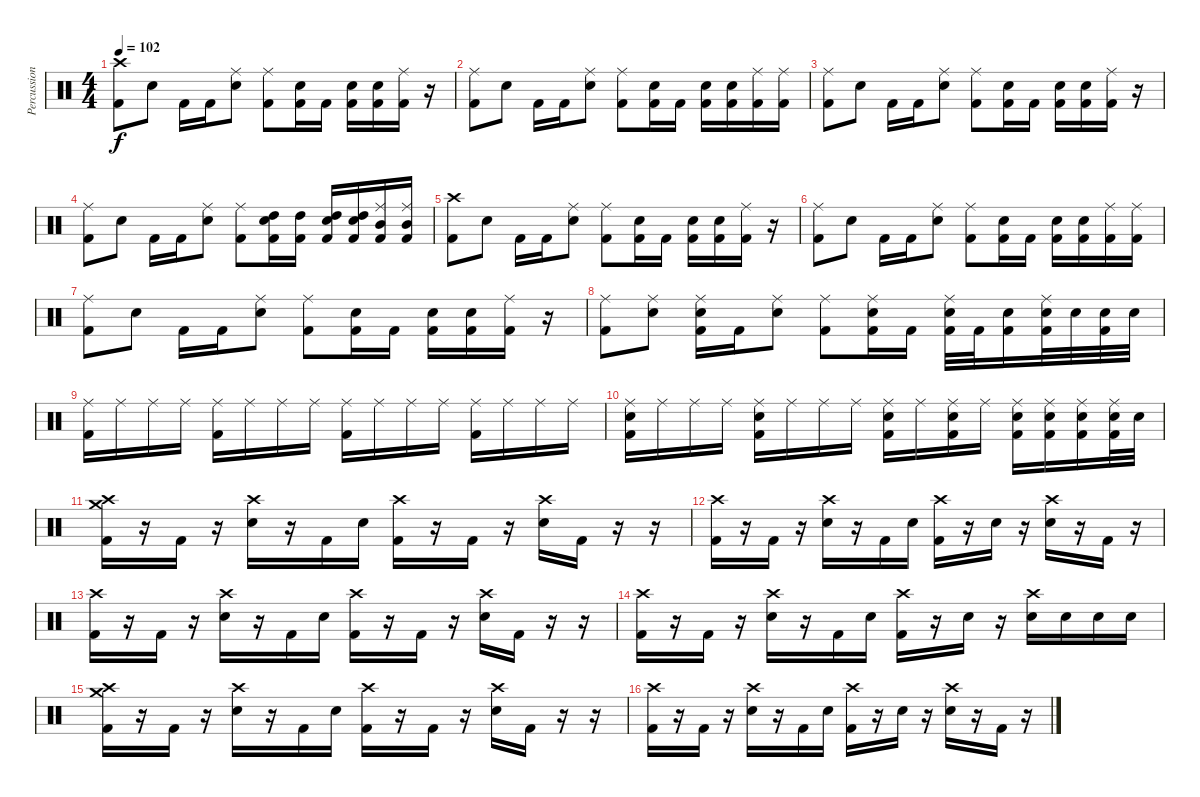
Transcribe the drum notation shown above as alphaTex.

\track ("Percussion" "Percussion") {instrument percussion}
\staff {score}
\articulation defaults
\ts (4 4)
\tempo 102
\clef neutral
\ks c
("Crash high (hit)" "Kick (hit) 2").8{dy f} "Electric Snare (hit)".8 "Kick (hit) 2".16 "Kick (hit) 2".16 ("Ride (middle)" "Electric Snare (hit)").8 ("Ride (middle)" "Kick (hit) 2").8 ("Electric Snare (hit)" "Kick (hit) 2").16 "Kick (hit) 2".16 ("Electric Snare (hit)" "Kick (hit) 2").16 ("Electric Snare (hit)" "Kick (hit) 2").16 ("Ride (middle)" "Kick (hit) 2").16 r.16 |
("Ride (middle)" "Kick (hit) 2").8 "Electric Snare (hit)".8 "Kick (hit) 2".16 "Kick (hit) 2".16 ("Ride (middle)" "Electric Snare (hit)").8 ("Ride (middle)" "Kick (hit) 2").8 ("Electric Snare (hit)" "Kick (hit) 2").16 "Kick (hit) 2".16 ("Electric Snare (hit)" "Kick (hit) 2").16 ("Electric Snare (hit)" "Kick (hit) 2").16 ("Ride (middle)" "Kick (hit) 2").16 ("Ride (middle)" "Kick (hit) 2").16 |
("Ride (middle)" "Kick (hit) 2").8 "Electric Snare (hit)".8 "Kick (hit) 2".16 "Kick (hit) 2".16 ("Ride (middle)" "Electric Snare (hit)").8 ("Ride (middle)" "Kick (hit) 2").8 ("Electric Snare (hit)" "Kick (hit) 2").16 "Kick (hit) 2".16 ("Electric Snare (hit)" "Kick (hit) 2").16 ("Electric Snare (hit)" "Kick (hit) 2").16 ("Ride (middle)" "Kick (hit) 2").16 r.16 |
("Ride (middle)" "Kick (hit) 2").8 "Electric Snare (hit)".8 "Kick (hit) 2".16 "Kick (hit) 2".16 ("Ride (middle)" "Electric Snare (hit)").8 ("Ride (middle)" "Kick (hit) 2").8 ("High Tom (hit)" "Electric Snare (hit)" "Kick (hit) 2").16 ("High Tom (hit)" "Kick (hit) 2").16 ("High Tom (hit)" "Electric Snare (hit)" "Kick (hit) 2").16 ("High Tom (hit)" "Electric Snare (hit)" "Kick (hit) 2").16 ("Mid Tom (hit)" "Ride (middle)" "Kick (hit) 2").16 ("Mid Tom (hit)" "Ride (middle)" "Kick (hit) 2").16 |
("Crash high (hit)" "Kick (hit) 2").8 "Electric Snare (hit)".8 "Kick (hit) 2".16 "Kick (hit) 2".16 ("Ride (middle)" "Electric Snare (hit)").8 ("Ride (middle)" "Kick (hit) 2").8 ("Electric Snare (hit)" "Kick (hit) 2").16 "Kick (hit) 2".16 ("Electric Snare (hit)" "Kick (hit) 2").16 ("Electric Snare (hit)" "Kick (hit) 2").16 ("Ride (middle)" "Kick (hit) 2").16 r.16 |
("Ride (middle)" "Kick (hit) 2").8 "Electric Snare (hit)".8 "Kick (hit) 2".16 "Kick (hit) 2".16 ("Ride (middle)" "Electric Snare (hit)").8 ("Ride (middle)" "Kick (hit) 2").8 ("Electric Snare (hit)" "Kick (hit) 2").16 "Kick (hit) 2".16 ("Electric Snare (hit)" "Kick (hit) 2").16 ("Electric Snare (hit)" "Kick (hit) 2").16 ("Ride (middle)" "Kick (hit) 2").16 ("Ride (middle)" "Kick (hit) 2").16 |
("Ride (middle)" "Kick (hit) 2").8 "Electric Snare (hit)".8 "Kick (hit) 2".16 "Kick (hit) 2".16 ("Ride (middle)" "Electric Snare (hit)").8 ("Ride (middle)" "Kick (hit) 2").8 ("Electric Snare (hit)" "Kick (hit) 2").16 "Kick (hit) 2".16 ("Electric Snare (hit)" "Kick (hit) 2").16 ("Electric Snare (hit)" "Kick (hit) 2").16 ("Ride (middle)" "Kick (hit) 2").16 r.16 |
("Ride (middle)" "Kick (hit) 2").8 ("Ride (middle)" "Electric Snare (hit)").8 ("Ride (middle)" "Electric Snare (hit)" "Kick (hit) 2").16 "Kick (hit) 2".16 ("Ride (middle)" "Electric Snare (hit)").8 ("Ride (middle)" "Kick (hit) 2").8 ("Ride (middle)" "Electric Snare (hit)" "Kick (hit) 2").16 "Kick (hit) 2".16 ("Ride (middle)" "Electric Snare (hit)" "Kick (hit) 2").32 "Kick (hit) 2".32 ("Electric Snare (hit)" "Kick (hit) 2").16 ("Ride (middle)" "Electric Snare (hit)" "Kick (hit) 2").32 "Electric Snare (hit)".32 ("Electric Snare (hit)" "Kick (hit) 2").32 "Electric Snare (hit)".32 |
("Ride (middle)" "Kick (hit) 2").16 "Ride (middle)".16 "Ride (middle)".16 "Ride (middle)".16 ("Ride (middle)" "Kick (hit) 2").16 "Ride (middle)".16 "Ride (middle)".16 "Ride (middle)".16 ("Ride (middle)" "Kick (hit) 2").16 "Ride (middle)".16 "Ride (middle)".16 "Ride (middle)".16 ("Ride (middle)" "Kick (hit) 2").16 "Ride (middle)".16 "Ride (middle)".16 "Ride (middle)".16 |
("Ride (middle)" "Electric Snare (hit)" "Kick (hit) 2").16 "Ride (middle)".16 "Ride (middle)".16 "Ride (middle)".16 ("Ride (middle)" "Electric Snare (hit)" "Kick (hit) 2").16 "Ride (middle)".16 "Ride (middle)".16 "Ride (middle)".16 ("Ride (middle)" "Electric Snare (hit)" "Kick (hit) 2").16 "Ride (middle)".16 ("Ride (middle)" "Electric Snare (hit)" "Kick (hit) 2").16 "Ride (middle)".16 ("Ride (middle)" "Electric Snare (hit)" "Kick (hit) 2").16 ("Ride (middle)" "Electric Snare (hit)" "Kick (hit) 2").16 ("Ride (middle)" "Electric Snare (hit)" "Kick (hit) 2").16 ("Ride (middle)" "Electric Snare (hit)" "Kick (hit) 2").32 "Electric Snare (hit)".32 |
("Crash medium (hit)" "Crash high (hit)" "Kick (hit) 2").16 r.16 "Kick (hit) 2".16 r.16 ("Crash high (hit)" "Electric Snare (hit)").16 r.16 "Kick (hit) 2".16 "Electric Snare (hit)".16 ("Crash high (hit)" "Kick (hit) 2").16 r.16 "Kick (hit) 2".16 r.16 ("Crash high (hit)" "Electric Snare (hit)").16 "Kick (hit) 2".16 r.16 r.16 |
("Crash high (hit)" "Kick (hit) 2").16 r.16 "Kick (hit) 2".16 r.16 ("Crash high (hit)" "Electric Snare (hit)").16 r.16 "Kick (hit) 2".16 "Electric Snare (hit)".16 ("Crash high (hit)" "Kick (hit) 2").16 r.16 "Electric Snare (hit)".16 r.16 ("Crash high (hit)" "Electric Snare (hit)").16 r.16 "Kick (hit) 2".16 r.16 |
("Crash high (hit)" "Kick (hit) 2").16 r.16 "Kick (hit) 2".16 r.16 ("Crash high (hit)" "Electric Snare (hit)").16 r.16 "Kick (hit) 2".16 "Electric Snare (hit)".16 ("Crash high (hit)" "Kick (hit) 2").16 r.16 "Kick (hit) 2".16 r.16 ("Crash high (hit)" "Electric Snare (hit)").16 "Kick (hit) 2".16 r.16 r.16 |
("Crash high (hit)" "Kick (hit) 2").16 r.16 "Kick (hit) 2".16 r.16 ("Crash high (hit)" "Electric Snare (hit)").16 r.16 "Kick (hit) 2".16 "Electric Snare (hit)".16 ("Crash high (hit)" "Kick (hit) 2").16 r.16 "Electric Snare (hit)".16 r.16 ("Crash high (hit)" "Electric Snare (hit)").16 "Electric Snare (hit)".16 "Electric Snare (hit)".16 "Electric Snare (hit)".16 |
("Crash medium (hit)" "Crash high (hit)" "Kick (hit) 2").16 r.16 "Kick (hit) 2".16 r.16 ("Crash high (hit)" "Electric Snare (hit)").16 r.16 "Kick (hit) 2".16 "Electric Snare (hit)".16 ("Crash high (hit)" "Kick (hit) 2").16 r.16 "Kick (hit) 2".16 r.16 ("Crash high (hit)" "Electric Snare (hit)").16 "Kick (hit) 2".16 r.16 r.16 |
("Crash high (hit)" "Kick (hit) 2").16 r.16 "Kick (hit) 2".16 r.16 ("Crash high (hit)" "Electric Snare (hit)").16 r.16 "Kick (hit) 2".16 "Electric Snare (hit)".16 ("Crash high (hit)" "Kick (hit) 2").16 r.16 "Electric Snare (hit)".16 r.16 ("Crash high (hit)" "Electric Snare (hit)").16 r.16 "Kick (hit) 2".16 r.16
